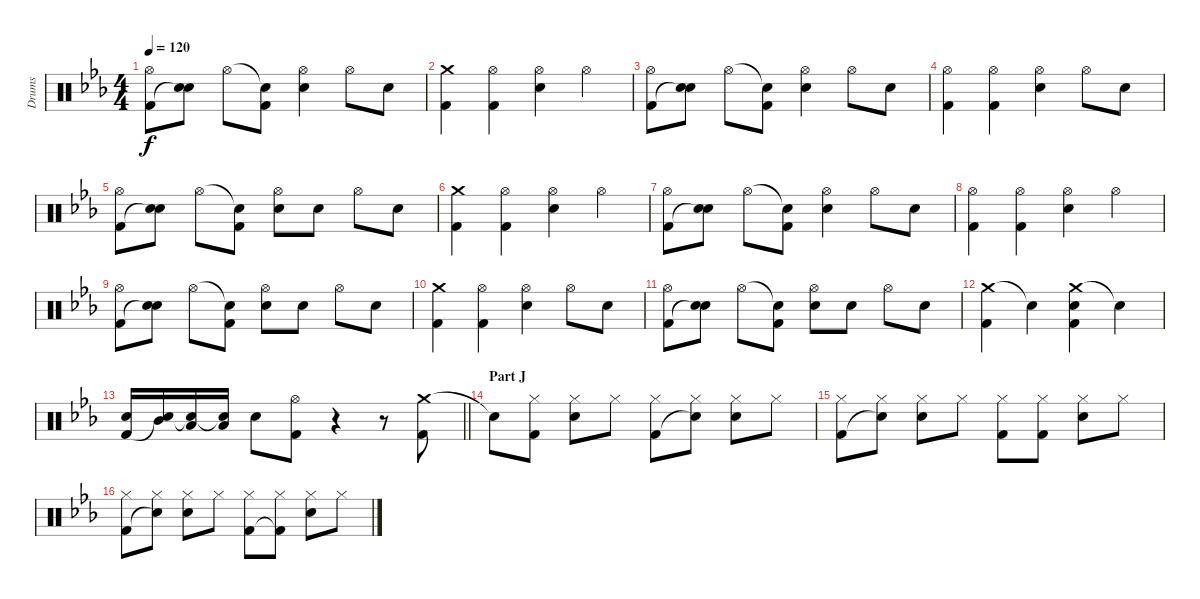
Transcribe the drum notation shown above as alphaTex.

\track ("Drums" "Drums") {instrument percussion}
\staff {score}
\articulation defaults
\ts (4 4)
\tempo 120
\clef neutral
\ks eb
("Hi-Hat (open)" "Kick (hit) 2").8{dy f} ("Electric Snare (hit)" "Snare (hit)"{t}).8 "Hi-Hat (open)".8 ("Snare (hit)"{t} "Kick (hit) 2").8 ("Hi-Hat (open)" "Electric Snare (hit)").4 "Hi-Hat (open)".8 "Electric Snare (hit)".8 |
("Crash medium (hit)" "Kick (hit) 2").4 ("Hi-Hat (open)" "Kick (hit) 2").4 ("Hi-Hat (open)" "Electric Snare (hit)").4 "Hi-Hat (open)".4 |
("Hi-Hat (open)" "Kick (hit) 2").8 ("Electric Snare (hit)" "Snare (hit)"{t}).8 "Hi-Hat (open)".8 ("Snare (hit)"{t} "Kick (hit) 2").8 ("Hi-Hat (open)" "Electric Snare (hit)").4 "Hi-Hat (open)".8 "Electric Snare (hit)".8 |
("Hi-Hat (open)" "Kick (hit) 2").4 ("Hi-Hat (open)" "Kick (hit) 2").4 ("Hi-Hat (open)" "Electric Snare (hit)").4 "Hi-Hat (open)".8 "Electric Snare (hit)".8 |
("Hi-Hat (open)" "Kick (hit) 2").8 ("Electric Snare (hit)" "Snare (hit)"{t}).8 "Hi-Hat (open)".8 ("Snare (hit)"{t} "Kick (hit) 2").8 ("Hi-Hat (open)" "Electric Snare (hit)").8 "Electric Snare (hit)".8 "Hi-Hat (open)".8 "Electric Snare (hit)".8 |
("Crash medium (hit)" "Kick (hit) 2").4 ("Hi-Hat (open)" "Kick (hit) 2").4 ("Hi-Hat (open)" "Electric Snare (hit)").4 "Hi-Hat (open)".4 |
("Hi-Hat (open)" "Kick (hit) 2").8 ("Electric Snare (hit)" "Snare (hit)"{t}).8 "Hi-Hat (open)".8 ("Snare (hit)"{t} "Kick (hit) 2").8 ("Hi-Hat (open)" "Electric Snare (hit)").4 "Hi-Hat (open)".8 "Electric Snare (hit)".8 |
("Hi-Hat (open)" "Kick (hit) 2").4 ("Hi-Hat (open)" "Kick (hit) 2").4 ("Hi-Hat (open)" "Electric Snare (hit)").4 "Hi-Hat (open)".4 |
("Hi-Hat (open)" "Kick (hit) 2").8 ("Electric Snare (hit)" "Snare (hit)"{t}).8 "Hi-Hat (open)".8 ("Snare (hit)"{t} "Kick (hit) 2").8 ("Hi-Hat (open)" "Electric Snare (hit)").8 "Electric Snare (hit)".8 "Hi-Hat (open)".8 "Electric Snare (hit)".8 |
("Crash medium (hit)" "Kick (hit) 2").4 ("Hi-Hat (open)" "Kick (hit) 2").4 ("Hi-Hat (open)" "Electric Snare (hit)").4 "Hi-Hat (open)".8 "Electric Snare (hit)".8 |
("Hi-Hat (open)" "Kick (hit) 2").8 ("Electric Snare (hit)" "Snare (hit)"{t}).8 "Hi-Hat (open)".8 ("Snare (hit)"{t} "Kick (hit) 2").8 ("Hi-Hat (open)" "Electric Snare (hit)").8 "Electric Snare (hit)".8 "Hi-Hat (open)".8 "Electric Snare (hit)".8 |
("Crash medium (hit)" "Kick (hit) 2").4 "Snare (hit)"{t}.4 ("Crash medium (hit)" "Electric Snare (hit)" "Kick (hit) 2").4 "Snare (hit)"{t}.4 |
\barLineRight lightlight
("Electric Snare (hit)" "Kick (hit) 2").16 ("Mid Tom (hit)" "Snare (hit)"{t}).16 ("Low Tom (hit)" "Snare (hit)"{t}).16 ("Low Floor Tom (hit)" "Snare (hit)"{t}).16 "Electric Snare (hit)".8 ("Hi-Hat (open)" "Kick (hit) 2").8 r.4 r.8 ("Crash medium (hit)" "Kick (hit) 2").8 |
\section ("" "Part J")
"Snare (hit)"{t}.8 ("Hi-Hat (closed)" "Kick (hit) 2").8 ("Hi-Hat (closed)" "Electric Snare (hit)").8 "Hi-Hat (closed)".8 ("Hi-Hat (closed)" "Kick (hit) 2").8 ("Hi-Hat (closed)" "Snare (hit)"{t}).8 ("Hi-Hat (closed)" "Electric Snare (hit)").8 "Hi-Hat (closed)".8 |
("Hi-Hat (closed)" "Kick (hit) 2").8 ("Hi-Hat (closed)" "Snare (hit)"{t}).8 ("Hi-Hat (closed)" "Electric Snare (hit)").8 "Hi-Hat (closed)".8 ("Hi-Hat (closed)" "Kick (hit) 2").8 ("Hi-Hat (closed)" "Kick (hit) 2").8 ("Hi-Hat (closed)" "Electric Snare (hit)").8 "Hi-Hat (closed)".8 |
("Hi-Hat (closed)" "Kick (hit) 2").8 ("Hi-Hat (closed)" "Snare (hit)"{t}).8 ("Hi-Hat (closed)" "Electric Snare (hit)").8 "Hi-Hat (closed)".8 ("Hi-Hat (closed)" "Kick (hit) 2").8 ("Hi-Hat (closed)" "Kick (hit) 2"{t}).8 ("Hi-Hat (closed)" "Electric Snare (hit)").8 "Hi-Hat (closed)".8
